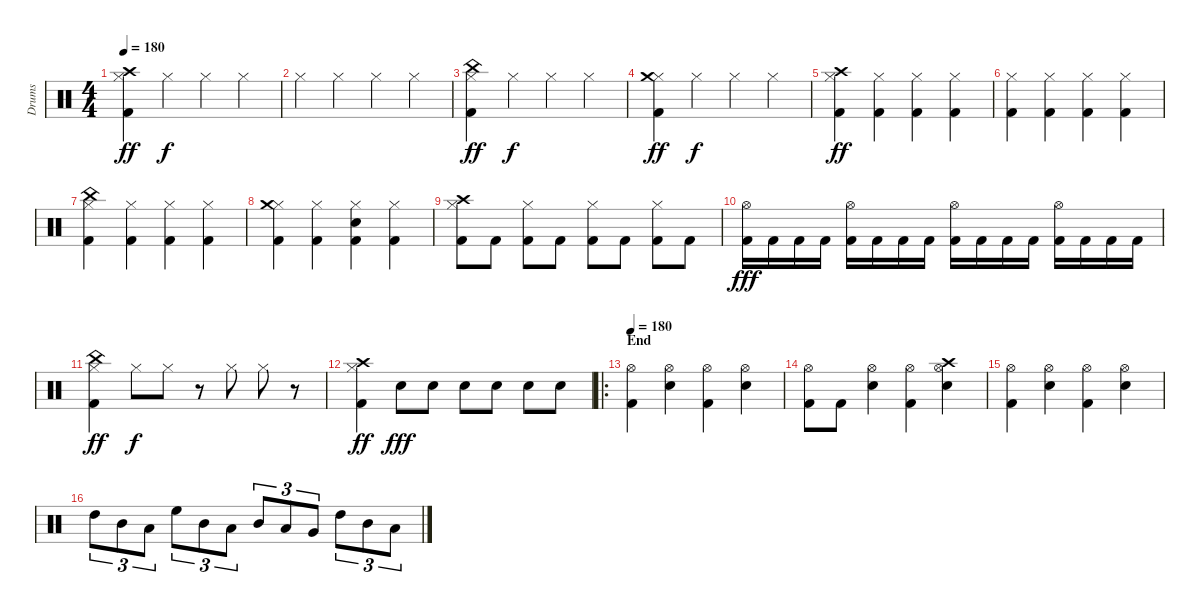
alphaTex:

\track ("Drums" "Drums") {instrument percussion}
\staff {score}
\articulation defaults
\ts (4 4)
\tempo 180
\clef neutral
\ks c
("Hi-Hat (closed)" "Crash high (hit)" "Kick (hit) 2").4{dy ff} "Hi-Hat (closed)".4{dy f} "Hi-Hat (closed)".4 "Hi-Hat (closed)".4 |
"Hi-Hat (closed)".4 "Hi-Hat (closed)".4 "Hi-Hat (closed)".4 "Hi-Hat (closed)".4 |
("Hi-Hat (closed)" "China (hit)" "Kick (hit) 2").4{dy ff} "Hi-Hat (closed)".4{dy f} "Hi-Hat (closed)".4 "Hi-Hat (closed)".4 |
("Hi-Hat (closed)" "Crash medium (hit)" "Kick (hit) 2").4{dy ff} "Hi-Hat (closed)".4{dy f} "Hi-Hat (closed)".4 "Hi-Hat (closed)".4 |
("Hi-Hat (closed)" "Crash high (hit)" "Kick (hit) 2").4{dy ff} ("Hi-Hat (closed)" "Kick (hit) 2").4 ("Hi-Hat (closed)" "Kick (hit) 2").4 ("Hi-Hat (closed)" "Kick (hit) 2").4 |
("Hi-Hat (closed)" "Kick (hit) 2").4 ("Hi-Hat (closed)" "Kick (hit) 2").4 ("Hi-Hat (closed)" "Kick (hit) 2").4 ("Hi-Hat (closed)" "Kick (hit) 2").4 |
("Hi-Hat (closed)" "China (hit)" "Kick (hit) 2").4 ("Hi-Hat (closed)" "Kick (hit) 2").4 ("Hi-Hat (closed)" "Kick (hit) 2").4 ("Hi-Hat (closed)" "Kick (hit) 2").4 |
("Hi-Hat (closed)" "Crash medium (hit)" "Kick (hit) 2").4 ("Hi-Hat (closed)" "Kick (hit) 2").4 ("Hi-Hat (closed)" "Snare (hit) 2" "Kick (hit) 2").4 ("Hi-Hat (closed)" "Kick (hit) 2").4 |
("Hi-Hat (closed)" "Crash high (hit)" "Kick (hit) 2").8 "Kick (hit) 2".8 ("Hi-Hat (closed)" "Kick (hit) 2").8 "Kick (hit) 2".8 ("Hi-Hat (closed)" "Kick (hit) 2").8 "Kick (hit) 2".8 ("Hi-Hat (closed)" "Kick (hit) 2").8 "Kick (hit) 2".8 |
("Hi-Hat (open)" "Kick (hit) 2").16{dy fff} "Kick (hit) 2".16 "Kick (hit) 2".16 "Kick (hit) 2".16 ("Hi-Hat (open)" "Kick (hit) 2").16 "Kick (hit) 2".16 "Kick (hit) 2".16 "Kick (hit) 2".16 ("Hi-Hat (open)" "Kick (hit) 2").16 "Kick (hit) 2".16 "Kick (hit) 2".16 "Kick (hit) 2".16 ("Hi-Hat (open)" "Kick (hit) 2").16 "Kick (hit) 2".16 "Kick (hit) 2".16 "Kick (hit) 2".16 |
("Hi-Hat (closed)" "China (hit)" "Kick (hit) 2").4{dy ff} "Hi-Hat (closed)".8{dy f} "Hi-Hat (closed)".8 r.8 "Hi-Hat (closed)".8 "Hi-Hat (closed)".8 r.8 |
("Hi-Hat (closed)" "Crash high (hit)" "Kick (hit) 2").4{dy ff} "Snare (hit) 2".8{dy fff} "Snare (hit) 2".8 "Snare (hit) 2".8 "Snare (hit) 2".8 "Snare (hit) 2".8 "Snare (hit) 2".8 |
\ro
\section ("" "End")
\tempo 180
("Hi-Hat (open)" "Kick (hit) 2").4 ("Hi-Hat (open)" "Snare (hit) 2").4 ("Hi-Hat (open)" "Kick (hit) 2").4 ("Hi-Hat (open)" "Snare (hit) 2").4 |
("Hi-Hat (open)" "Kick (hit) 2").8 "Kick (hit) 2".8 ("Hi-Hat (open)" "Snare (hit) 2").4 ("Hi-Hat (open)" "Kick (hit) 2").4 ("Hi-Hat (open)" "Crash high (hit)" "Snare (hit) 2").4 |
("Hi-Hat (open)" "Kick (hit) 2").4 ("Hi-Hat (open)" "Snare (hit) 2").4 ("Hi-Hat (open)" "Kick (hit) 2").4 ("Hi-Hat (open)" "Snare (hit) 2").4 |
"High Tom (hit)".8{tu (3 2)} "Mid Tom (hit)".8{tu (3 2)} "Low Tom (hit)".8{tu (3 2)} "High Floor Tom (hit)".8{tu (3 2)} "Mid Tom (hit)".8{tu (3 2)} "Low Tom (hit)".8{tu (3 2)} "Mid Tom (hit)".8{tu (3 2)} "Low Tom (hit)".8{tu (3 2)} "Very Low Tom (hit)".8{tu (3 2)} "High Tom (hit)".8{tu (3 2)} "Mid Tom (hit)".8{tu (3 2)} "Low Tom (hit)".8{tu (3 2)}
